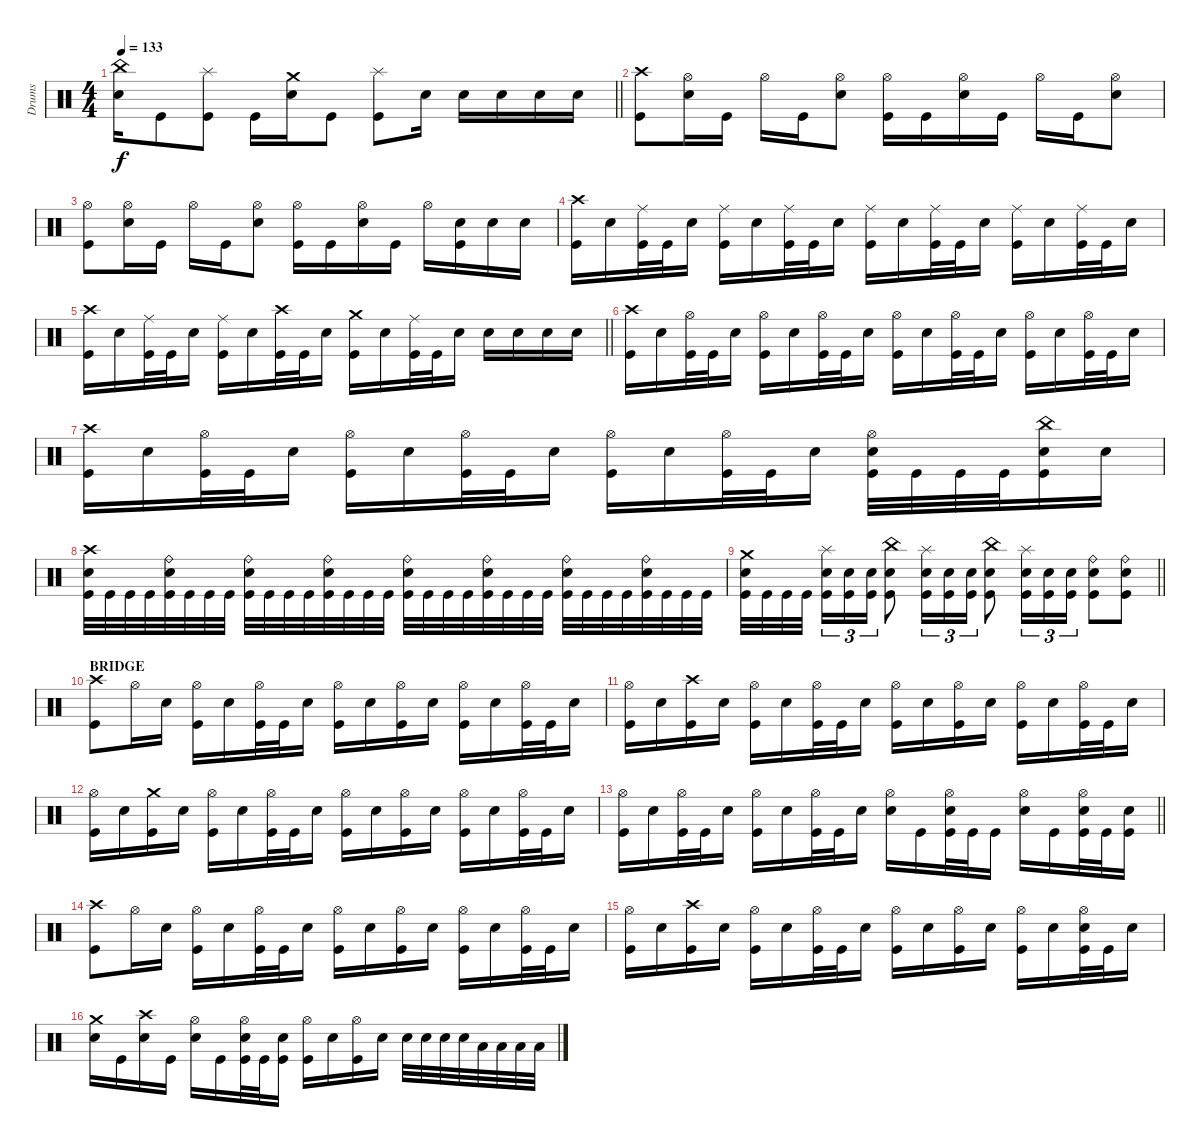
\track ("Drums" "Drums") {instrument percussion}
\staff
\articulation defaults
\ts (4 4)
\tempo 133
\clef neutral
\barLineRight lightlight
\ks c
("China (hit)" "Electric Snare (hit)").16{dy f} "Kick (hit)".8 ("Splash (hit)" "Kick (hit)").8 "Kick (hit)".16 ("Crash medium (hit)" "Electric Snare (hit)").16 "Kick (hit)".8 ("Splash (hit)" "Kick (hit)").8 "Electric Snare (hit)".16 "Electric Snare (hit)".16 "Electric Snare (hit)".16 "Electric Snare (hit)".16 "Electric Snare (hit)".16 |
("Crash high (hit)" "Kick (hit)").8 ("Hi-Hat (open)" "Electric Snare (hit)").16 "Kick (hit)".16 "Hi-Hat (open)".16 "Kick (hit)".16 ("Hi-Hat (open)" "Electric Snare (hit)").8 ("Hi-Hat (open)" "Kick (hit)").16 "Kick (hit)".16 ("Hi-Hat (open)" "Electric Snare (hit)").16 "Kick (hit)".16 "Hi-Hat (open)".16 "Kick (hit)".16 ("Hi-Hat (open)" "Electric Snare (hit)").8 |
("Hi-Hat (open)" "Kick (hit)").8 ("Hi-Hat (open)" "Electric Snare (hit)").16 "Kick (hit)".16 "Hi-Hat (open)".16 "Kick (hit)".16 ("Hi-Hat (open)" "Electric Snare (hit)").8 ("Hi-Hat (open)" "Kick (hit)").16 "Kick (hit)".16 ("Hi-Hat (open)" "Electric Snare (hit)").16 "Kick (hit)".16 "Hi-Hat (open)".16 ("Electric Snare (hit)" "Kick (hit)").16 "Electric Snare (hit)".16 "Electric Snare (hit)".16 |
("Crash high (hit)" "Kick (hit)").16 "Electric Snare (hit)".16 ("Ride (middle)" "Kick (hit)").32 "Kick (hit)".32 "Electric Snare (hit)".16 ("Ride (middle)" "Kick (hit)").16 "Electric Snare (hit)".16 ("Ride (middle)" "Kick (hit)").32 "Kick (hit)".32 "Electric Snare (hit)".16 ("Ride (middle)" "Kick (hit)").16 "Electric Snare (hit)".16 ("Ride (middle)" "Kick (hit)").32 "Kick (hit)".32 "Electric Snare (hit)".16 ("Ride (middle)" "Kick (hit)").16 "Electric Snare (hit)".16 ("Ride (middle)" "Kick (hit)").32 "Kick (hit)".32 "Electric Snare (hit)".16 |
\barLineRight lightlight
("Crash high (hit)" "Kick (hit)").16 "Electric Snare (hit)".16 ("Ride (middle)" "Kick (hit)").32 "Kick (hit)".32 "Electric Snare (hit)".16 ("Ride (middle)" "Kick (hit)").16 "Electric Snare (hit)".16 ("Crash high (hit)" "Kick (hit)").32 "Kick (hit)".32 "Electric Snare (hit)".16 ("Crash medium (hit)" "Kick (hit)").16 "Electric Snare (hit)".16 ("Ride (middle)" "Kick (hit)").32 "Kick (hit)".32 "Electric Snare (hit)".16 "Electric Snare (hit)".16 "Electric Snare (hit)".16 "Electric Snare (hit)".16 "Electric Snare (hit)".16 |
("Crash high (hit)" "Kick (hit)").16 "Electric Snare (hit)".16 ("Hi-Hat (open)" "Kick (hit)").32 "Kick (hit)".32 "Electric Snare (hit)".16 ("Hi-Hat (open)" "Kick (hit)").16 "Electric Snare (hit)".16 ("Hi-Hat (open)" "Kick (hit)").32 "Kick (hit)".32 "Electric Snare (hit)".16 ("Hi-Hat (open)" "Kick (hit)").16 "Electric Snare (hit)".16 ("Hi-Hat (open)" "Kick (hit)").32 "Kick (hit)".32 "Electric Snare (hit)".16 ("Hi-Hat (open)" "Kick (hit)").16 "Electric Snare (hit)".16 ("Hi-Hat (open)" "Kick (hit)").32 "Kick (hit)".32 "Electric Snare (hit)".16 |
("Crash high (hit)" "Kick (hit)").16 "Electric Snare (hit)".16 ("Hi-Hat (open)" "Kick (hit)").32 "Kick (hit)".32 "Electric Snare (hit)".16 ("Hi-Hat (open)" "Kick (hit)").16 "Electric Snare (hit)".16 ("Hi-Hat (open)" "Kick (hit)").32 "Kick (hit)".32 "Electric Snare (hit)".16 ("Hi-Hat (open)" "Kick (hit)").16 "Electric Snare (hit)".16 ("Hi-Hat (open)" "Kick (hit)").32 "Kick (hit)".32 "Electric Snare (hit)".16 ("Hi-Hat (open)" "Electric Snare (hit)" "Kick (hit)").32 "Kick (hit)".32 "Kick (hit)".32 "Kick (hit)".32 ("China (hit)" "Electric Snare (hit)" "Kick (hit)").16 "Electric Snare (hit)".16 |
("Crash high (hit)" "Electric Snare (hit)" "Kick (hit)").32 "Kick (hit)".32 "Kick (hit)".32 "Kick (hit)".32 ("Ride (bell)" "Electric Snare (hit)" "Kick (hit)").32 "Kick (hit)".32 "Kick (hit)".32 "Kick (hit)".32 ("Ride (bell)" "Electric Snare (hit)" "Kick (hit)").32 "Kick (hit)".32 "Kick (hit)".32 "Kick (hit)".32 ("Ride (bell)" "Electric Snare (hit)" "Kick (hit)").32 "Kick (hit)".32 "Kick (hit)".32 "Kick (hit)".32 ("Ride (bell)" "Electric Snare (hit)" "Kick (hit)").32 "Kick (hit)".32 "Kick (hit)".32 "Kick (hit)".32 ("Ride (bell)" "Electric Snare (hit)" "Kick (hit)").32 "Kick (hit)".32 "Kick (hit)".32 "Kick (hit)".32 ("Ride (bell)" "Electric Snare (hit)" "Kick (hit)").32 "Kick (hit)".32 "Kick (hit)".32 "Kick (hit)".32 ("Ride (bell)" "Electric Snare (hit)" "Kick (hit)").32 "Kick (hit)".32 "Kick (hit)".32 "Kick (hit)".32 |
\barLineRight lightlight
("Crash medium (hit)" "Electric Snare (hit)" "Kick (hit)").32 "Kick (hit)".32 "Kick (hit)".32 "Kick (hit)".32{beam splitsecondary} ("Splash (hit)" "Electric Snare (hit)" "Kick (hit)").16{tu (3 2)} ("Electric Snare (hit)" "Kick (hit)").16{tu (3 2)} ("Electric Snare (hit)" "Kick (hit)").16{tu (3 2)} ("China (hit)" "Electric Snare (hit)" "Kick (hit)").8 ("Splash (hit)" "Electric Snare (hit)" "Kick (hit)").16{tu (3 2)} ("Electric Snare (hit)" "Kick (hit)").16{tu (3 2)} ("Electric Snare (hit)" "Kick (hit)").16{tu (3 2)} ("China (hit)" "Electric Snare (hit)" "Kick (hit)").8 ("Splash (hit)" "Electric Snare (hit)" "Kick (hit)").16{tu (3 2)} ("Electric Snare (hit)" "Kick (hit)").16{tu (3 2)} ("Electric Snare (hit)" "Kick (hit)").16{tu (3 2)} ("Ride (bell)" "Electric Snare (hit)" "Kick (hit)").8 ("Ride (bell)" "Electric Snare (hit)" "Kick (hit)").8 |
\section ("" "BRIDGE")
("Crash high (hit)" "Kick (hit)").8 "Hi-Hat (open)".16 "Electric Snare (hit)".16 ("Hi-Hat (open)" "Kick (hit)").16 "Electric Snare (hit)".16 ("Hi-Hat (open)" "Kick (hit)").32 "Kick (hit)".32 "Electric Snare (hit)".16 ("Hi-Hat (open)" "Kick (hit)").16 "Electric Snare (hit)".16 ("Hi-Hat (open)" "Kick (hit)").16 "Electric Snare (hit)".16 ("Hi-Hat (open)" "Kick (hit)").16 "Electric Snare (hit)".16 ("Hi-Hat (open)" "Kick (hit)").32 "Kick (hit)".32 "Electric Snare (hit)".16 |
("Hi-Hat (open)" "Kick (hit)").16 "Electric Snare (hit)".16 ("Crash high (hit)" "Kick (hit)").16 "Electric Snare (hit)".16 ("Hi-Hat (open)" "Kick (hit)").16 "Electric Snare (hit)".16 ("Hi-Hat (open)" "Kick (hit)").32 "Kick (hit)".32 "Electric Snare (hit)".16 ("Hi-Hat (open)" "Kick (hit)").16 "Electric Snare (hit)".16 ("Hi-Hat (open)" "Kick (hit)").16 "Electric Snare (hit)".16 ("Hi-Hat (open)" "Kick (hit)").16 "Electric Snare (hit)".16 ("Hi-Hat (open)" "Kick (hit)").32 "Kick (hit)".32 "Electric Snare (hit)".16 |
("Hi-Hat (open)" "Kick (hit)").16 "Electric Snare (hit)".16 ("Crash medium (hit)" "Kick (hit)").16 "Electric Snare (hit)".16 ("Hi-Hat (open)" "Kick (hit)").16 "Electric Snare (hit)".16 ("Hi-Hat (open)" "Kick (hit)").32 "Kick (hit)".32 "Electric Snare (hit)".16 ("Hi-Hat (open)" "Kick (hit)").16 "Electric Snare (hit)".16 ("Hi-Hat (open)" "Kick (hit)").16 "Electric Snare (hit)".16 ("Hi-Hat (open)" "Kick (hit)").16 "Electric Snare (hit)".16 ("Hi-Hat (open)" "Kick (hit)").32 "Kick (hit)".32 "Electric Snare (hit)".16 |
\barLineRight lightlight
("Hi-Hat (open)" "Kick (hit)").16 "Electric Snare (hit)".16 ("Hi-Hat (open)" "Kick (hit)").32 "Kick (hit)".32 "Electric Snare (hit)".16 ("Hi-Hat (open)" "Kick (hit)").16 "Electric Snare (hit)".16 ("Hi-Hat (open)" "Kick (hit)").32 "Kick (hit)".32 "Electric Snare (hit)".16 ("Hi-Hat (open)" "Electric Snare (hit)").16 "Kick (hit)".16 ("Hi-Hat (open)" "Electric Snare (hit)" "Kick (hit)").32 "Kick (hit)".32 "Kick (hit)".16 ("Hi-Hat (open)" "Electric Snare (hit)").16 "Kick (hit)".16 ("Hi-Hat (open)" "Electric Snare (hit)" "Kick (hit)").32 "Kick (hit)".32 ("Electric Snare (hit)" "Kick (hit)").16 |
("Crash high (hit)" "Kick (hit)").8 "Hi-Hat (open)".16 "Electric Snare (hit)".16 ("Hi-Hat (open)" "Kick (hit)").16 "Electric Snare (hit)".16 ("Hi-Hat (open)" "Kick (hit)").32 "Kick (hit)".32 "Electric Snare (hit)".16 ("Hi-Hat (open)" "Kick (hit)").16 "Electric Snare (hit)".16 ("Hi-Hat (open)" "Kick (hit)").16 "Electric Snare (hit)".16 ("Hi-Hat (open)" "Kick (hit)").16 "Electric Snare (hit)".16 ("Hi-Hat (open)" "Kick (hit)").32 "Kick (hit)".32 "Electric Snare (hit)".16 |
("Hi-Hat (open)" "Kick (hit)").16 "Electric Snare (hit)".16 ("Crash high (hit)" "Kick (hit)").16 "Electric Snare (hit)".16 ("Hi-Hat (open)" "Kick (hit)").16 "Electric Snare (hit)".16 ("Hi-Hat (open)" "Kick (hit)").32 "Kick (hit)".32 "Electric Snare (hit)".16 ("Hi-Hat (open)" "Kick (hit)").16 "Electric Snare (hit)".16 ("Hi-Hat (open)" "Kick (hit)").16 "Electric Snare (hit)".16 ("Hi-Hat (open)" "Kick (hit)").16 "Electric Snare (hit)".16 ("Hi-Hat (open)" "Electric Snare (hit)" "Kick (hit)").32 "Kick (hit)".32 "Electric Snare (hit)".16 |
("Crash medium (hit)" "Electric Snare (hit)").16 "Kick (hit)".16 ("Crash high (hit)" "Electric Snare (hit)").16 "Kick (hit)".16 ("Hi-Hat (open)" "Electric Snare (hit)").16 "Kick (hit)".16 ("Hi-Hat (open)" "Electric Snare (hit)" "Kick (hit)").32 "Kick (hit)".32 ("Electric Snare (hit)" "Kick (hit)").16 ("Hi-Hat (open)" "Kick (hit)").16 "Electric Snare (hit)".16 ("Hi-Hat (open)" "Kick (hit)").16 "Electric Snare (hit)".16 "Electric Snare (hit)".32 "Electric Snare (hit)".32 "Electric Snare (hit)".32 "Electric Snare (hit)".32 "Low Tom (hit)".32 "Low Tom (hit)".32 "Low Tom (hit)".32 "Low Tom (hit)".32
